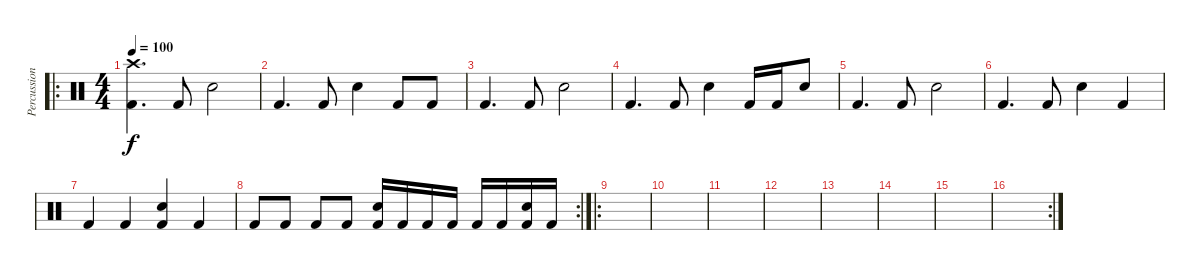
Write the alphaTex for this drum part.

\track ("Percussions" "Percussion") {instrument percussion}
\staff {score}
\articulation defaults
\ro
\ts (4 4)
\tempo 100
\clef neutral
\ks c
("Crash high (hit)" "Kick (hit) 2").4{d dy f} "Kick (hit) 2".8 "Snare (hit) 2".2 |
"Kick (hit) 2".4{d} "Kick (hit) 2".8 "Snare (hit) 2".4 "Kick (hit) 2".8 "Kick (hit) 2".8 |
"Kick (hit) 2".4{d} "Kick (hit) 2".8 "Snare (hit) 2".2 |
"Kick (hit) 2".4{d} "Kick (hit) 2".8 "Snare (hit) 2".4 "Kick (hit) 2".16 "Kick (hit) 2".16 "Snare (hit) 2".8 |
"Kick (hit) 2".4{d} "Kick (hit) 2".8 "Snare (hit) 2".2 |
"Kick (hit) 2".4{d} "Kick (hit) 2".8 "Snare (hit) 2".4 "Kick (hit) 2".4 |
"Kick (hit) 2".4 "Kick (hit) 2".4 ("Snare (hit) 2" "Kick (hit) 2").4 "Kick (hit) 2".4 |
\rc 2 "Kick (hit) 2".8 "Kick (hit) 2".8 "Kick (hit) 2".8 "Kick (hit) 2".8
("Snare (hit) 2" "Kick (hit) 2").16 "Kick (hit) 2".16 "Kick (hit) 2".16 "Kick (hit) 2".16 "Kick (hit) 2".16 "Kick (hit) 2".16 ("Snare (hit) 2" "Kick (hit) 2").16 "Kick (hit) 2".16 |
\ro
|
|
|
|
|
|
|
\rc 2
